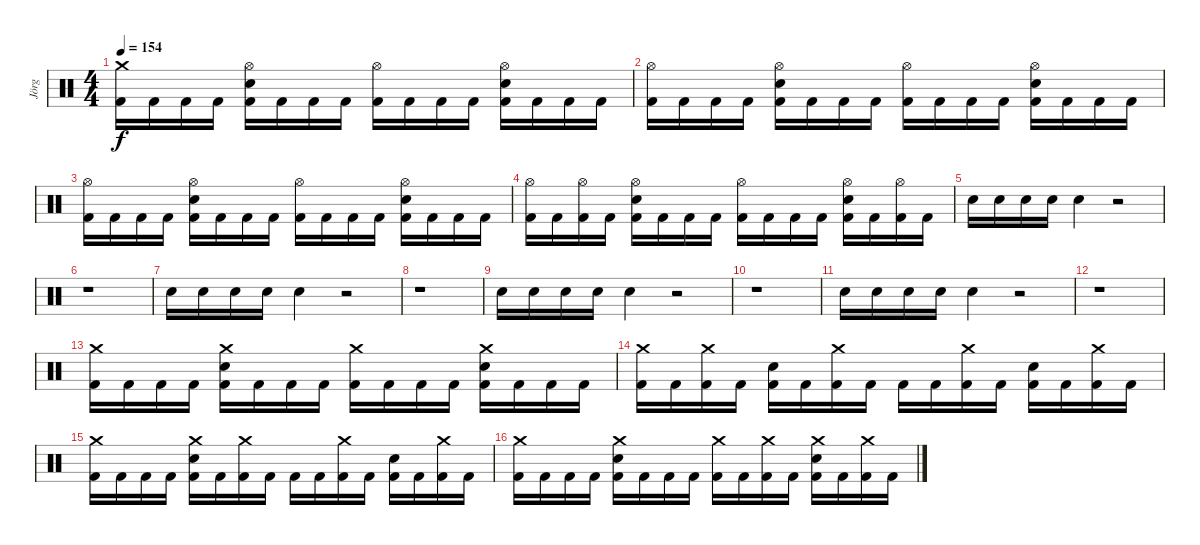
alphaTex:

\track ("Jörg" "Jörg") {instrument percussion}
\staff {score}
\articulation defaults
\ts (4 4)
\tempo 154
\clef neutral
\ks c
("Crash medium (hit)" "Kick (hit) 2").16{dy f} "Kick (hit) 2".16 "Kick (hit) 2".16 "Kick (hit) 2".16 ("Snare (hit) 2" "Hi-Hat (open)" "Kick (hit) 2").16 "Kick (hit) 2".16 "Kick (hit) 2".16 "Kick (hit) 2".16 ("Hi-Hat (open)" "Kick (hit) 2").16 "Kick (hit) 2".16 "Kick (hit) 2".16 "Kick (hit) 2".16 ("Snare (hit) 2" "Hi-Hat (open)" "Kick (hit) 2").16 "Kick (hit) 2".16 "Kick (hit) 2".16 "Kick (hit) 2".16 |
("Hi-Hat (open)" "Kick (hit) 2").16 "Kick (hit) 2".16 "Kick (hit) 2".16 "Kick (hit) 2".16 ("Snare (hit) 2" "Hi-Hat (open)" "Kick (hit) 2").16 "Kick (hit) 2".16 "Kick (hit) 2".16 "Kick (hit) 2".16 ("Hi-Hat (open)" "Kick (hit) 2").16 "Kick (hit) 2".16 "Kick (hit) 2".16 "Kick (hit) 2".16 ("Snare (hit) 2" "Hi-Hat (open)" "Kick (hit) 2").16 "Kick (hit) 2".16 "Kick (hit) 2".16 "Kick (hit) 2".16 |
("Hi-Hat (open)" "Kick (hit) 2").16 "Kick (hit) 2".16 "Kick (hit) 2".16 "Kick (hit) 2".16 ("Snare (hit) 2" "Hi-Hat (open)" "Kick (hit) 2").16 "Kick (hit) 2".16 "Kick (hit) 2".16 "Kick (hit) 2".16 ("Hi-Hat (open)" "Kick (hit) 2").16 "Kick (hit) 2".16 "Kick (hit) 2".16 "Kick (hit) 2".16 ("Snare (hit) 2" "Hi-Hat (open)" "Kick (hit) 2").16 "Kick (hit) 2".16 "Kick (hit) 2".16 "Kick (hit) 2".16 |
("Hi-Hat (open)" "Kick (hit) 2").16 "Kick (hit) 2".16 ("Hi-Hat (open)" "Kick (hit) 2").16 "Kick (hit) 2".16 ("Snare (hit) 2" "Hi-Hat (open)" "Kick (hit) 2").16 "Kick (hit) 2".16 "Kick (hit) 2".16 "Kick (hit) 2".16 ("Hi-Hat (open)" "Kick (hit) 2").16 "Kick (hit) 2".16 "Kick (hit) 2".16 "Kick (hit) 2".16 ("Snare (hit) 2" "Hi-Hat (open)" "Kick (hit) 2").16 "Kick (hit) 2".16 ("Hi-Hat (open)" "Kick (hit) 2").16 "Kick (hit) 2".16 |
"Snare (hit) 2".16 "Snare (hit) 2".16 "Snare (hit) 2".16 "Snare (hit) 2".16 "Snare (hit) 2".4 r.2 |
r.1 |
"Snare (hit) 2".16 "Snare (hit) 2".16 "Snare (hit) 2".16 "Snare (hit) 2".16 "Snare (hit) 2".4 r.2 |
r.1 |
"Snare (hit) 2".16 "Snare (hit) 2".16 "Snare (hit) 2".16 "Snare (hit) 2".16 "Snare (hit) 2".4 r.2 |
r.1 |
"Snare (hit) 2".16 "Snare (hit) 2".16 "Snare (hit) 2".16 "Snare (hit) 2".16 "Snare (hit) 2".4 r.2 |
r.1 |
("Kick (hit) 2" "Crash medium (hit)").16 "Kick (hit) 2".16 "Kick (hit) 2".16 "Kick (hit) 2".16 ("Kick (hit) 2" "Snare (hit) 2" "Crash medium (hit)").16 "Kick (hit) 2".16 "Kick (hit) 2".16 "Kick (hit) 2".16 ("Kick (hit) 2" "Crash medium (hit)").16 "Kick (hit) 2".16 "Kick (hit) 2".16 "Kick (hit) 2".16 ("Kick (hit) 2" "Snare (hit) 2" "Crash medium (hit)").16 "Kick (hit) 2".16 "Kick (hit) 2".16 "Kick (hit) 2".16 |
("Crash medium (hit)" "Kick (hit) 2").16 "Kick (hit) 2".16 ("Crash medium (hit)" "Kick (hit) 2").16 "Kick (hit) 2".16 ("Kick (hit) 2" "Snare (hit) 2").16 "Kick (hit) 2".16 ("Crash medium (hit)" "Kick (hit) 2").16 "Kick (hit) 2".16 "Kick (hit) 2".16 "Kick (hit) 2".16 ("Crash medium (hit)" "Kick (hit) 2").16 "Kick (hit) 2".16 ("Kick (hit) 2" "Snare (hit) 2").16 "Kick (hit) 2".16 ("Crash medium (hit)" "Kick (hit) 2").16 "Kick (hit) 2".16 |
("Crash medium (hit)" "Kick (hit) 2").16 "Kick (hit) 2".16 "Kick (hit) 2".16 "Kick (hit) 2".16 ("Crash medium (hit)" "Kick (hit) 2" "Snare (hit) 2").16 "Kick (hit) 2".16 ("Crash medium (hit)" "Kick (hit) 2").16 "Kick (hit) 2".16 "Kick (hit) 2".16 "Kick (hit) 2".16 ("Crash medium (hit)" "Kick (hit) 2").16 "Kick (hit) 2".16 ("Kick (hit) 2" "Snare (hit) 2").16 "Kick (hit) 2".16 ("Crash medium (hit)" "Kick (hit) 2").16 "Kick (hit) 2".16 |
("Kick (hit) 2" "Crash medium (hit)").16 "Kick (hit) 2".16 "Kick (hit) 2".16 "Kick (hit) 2".16 ("Kick (hit) 2" "Snare (hit) 2" "Crash medium (hit)").16 "Kick (hit) 2".16 "Kick (hit) 2".16 "Kick (hit) 2".16 ("Kick (hit) 2" "Crash medium (hit)").16 "Kick (hit) 2".16 ("Crash medium (hit)" "Kick (hit) 2").16 "Kick (hit) 2".16 ("Kick (hit) 2" "Snare (hit) 2" "Crash medium (hit)").16 "Kick (hit) 2".16 ("Crash medium (hit)" "Kick (hit) 2").16 "Kick (hit) 2".16
